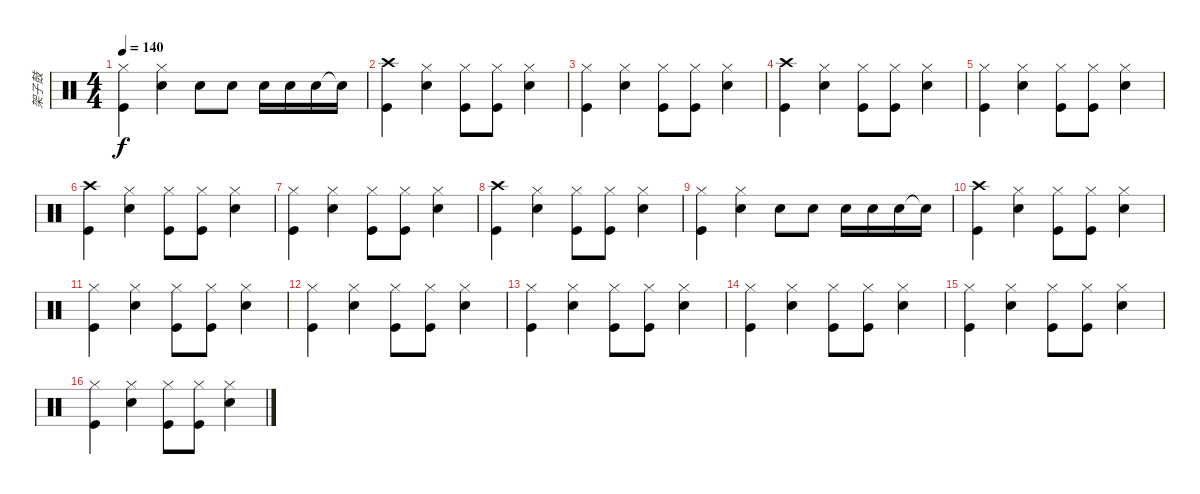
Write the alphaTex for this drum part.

\track ("架子鼓" "架子鼓") {instrument percussion}
\staff {score}
\articulation defaults
\ts (4 4)
\tempo 140
\clef neutral
\ks c
("Hi-Hat (closed)" "Kick (hit)").4{dy f} ("Hi-Hat (closed)" "Electric Snare (hit)").4 "Electric Snare (hit)".8 "Electric Snare (hit)".8 "Electric Snare (hit)".16 "Electric Snare (hit)".16 "Electric Snare (hit)".16 "Snare (hit)"{t}.16 |
("Crash high (hit)" "Kick (hit)").4 ("Hi-Hat (closed)" "Electric Snare (hit)").4 ("Hi-Hat (closed)" "Kick (hit)").8 ("Hi-Hat (closed)" "Kick (hit)").8 ("Hi-Hat (closed)" "Electric Snare (hit)").4 |
("Hi-Hat (closed)" "Kick (hit)").4 ("Hi-Hat (closed)" "Electric Snare (hit)").4 ("Hi-Hat (closed)" "Kick (hit)").8 ("Hi-Hat (closed)" "Kick (hit)").8 ("Hi-Hat (closed)" "Electric Snare (hit)").4 |
("Crash high (hit)" "Kick (hit)").4 ("Hi-Hat (closed)" "Electric Snare (hit)").4 ("Hi-Hat (closed)" "Kick (hit)").8 ("Hi-Hat (closed)" "Kick (hit)").8 ("Hi-Hat (closed)" "Electric Snare (hit)").4 |
("Hi-Hat (closed)" "Kick (hit)").4 ("Hi-Hat (closed)" "Electric Snare (hit)").4 ("Hi-Hat (closed)" "Kick (hit)").8 ("Hi-Hat (closed)" "Kick (hit)").8 ("Hi-Hat (closed)" "Electric Snare (hit)").4 |
("Crash high (hit)" "Kick (hit)").4 ("Hi-Hat (closed)" "Electric Snare (hit)").4 ("Hi-Hat (closed)" "Kick (hit)").8 ("Hi-Hat (closed)" "Kick (hit)").8 ("Hi-Hat (closed)" "Electric Snare (hit)").4 |
("Hi-Hat (closed)" "Kick (hit)").4 ("Hi-Hat (closed)" "Electric Snare (hit)").4 ("Hi-Hat (closed)" "Kick (hit)").8 ("Hi-Hat (closed)" "Kick (hit)").8 ("Hi-Hat (closed)" "Electric Snare (hit)").4 |
("Crash high (hit)" "Kick (hit)").4 ("Hi-Hat (closed)" "Electric Snare (hit)").4 ("Hi-Hat (closed)" "Kick (hit)").8 ("Hi-Hat (closed)" "Kick (hit)").8 ("Hi-Hat (closed)" "Electric Snare (hit)").4 |
("Hi-Hat (closed)" "Kick (hit)").4 ("Hi-Hat (closed)" "Electric Snare (hit)").4 "Electric Snare (hit)".8 "Electric Snare (hit)".8 "Electric Snare (hit)".16 "Electric Snare (hit)".16 "Electric Snare (hit)".16 "Snare (hit)"{t}.16 |
("Crash high (hit)" "Kick (hit)").4 ("Hi-Hat (closed)" "Electric Snare (hit)").4 ("Hi-Hat (closed)" "Kick (hit)").8 ("Hi-Hat (closed)" "Kick (hit)").8 ("Hi-Hat (closed)" "Electric Snare (hit)").4 |
("Hi-Hat (closed)" "Kick (hit)").4 ("Hi-Hat (closed)" "Electric Snare (hit)").4 ("Hi-Hat (closed)" "Kick (hit)").8 ("Hi-Hat (closed)" "Kick (hit)").8 ("Hi-Hat (closed)" "Electric Snare (hit)").4 |
("Hi-Hat (closed)" "Kick (hit)").4 ("Hi-Hat (closed)" "Electric Snare (hit)").4 ("Hi-Hat (closed)" "Kick (hit)").8 ("Hi-Hat (closed)" "Kick (hit)").8 ("Hi-Hat (closed)" "Electric Snare (hit)").4 |
("Hi-Hat (closed)" "Kick (hit)").4 ("Hi-Hat (closed)" "Electric Snare (hit)").4 ("Hi-Hat (closed)" "Kick (hit)").8 ("Hi-Hat (closed)" "Kick (hit)").8 ("Hi-Hat (closed)" "Electric Snare (hit)").4 |
("Hi-Hat (closed)" "Kick (hit)").4 ("Hi-Hat (closed)" "Electric Snare (hit)").4 ("Hi-Hat (closed)" "Kick (hit)").8 ("Hi-Hat (closed)" "Kick (hit)").8 ("Hi-Hat (closed)" "Electric Snare (hit)").4 |
("Hi-Hat (closed)" "Kick (hit)").4 ("Hi-Hat (closed)" "Electric Snare (hit)").4 ("Hi-Hat (closed)" "Kick (hit)").8 ("Hi-Hat (closed)" "Kick (hit)").8 ("Hi-Hat (closed)" "Electric Snare (hit)").4 |
("Hi-Hat (closed)" "Kick (hit)").4 ("Hi-Hat (closed)" "Electric Snare (hit)").4 ("Hi-Hat (closed)" "Kick (hit)").8 ("Hi-Hat (closed)" "Kick (hit)").8 ("Hi-Hat (closed)" "Electric Snare (hit)").4
